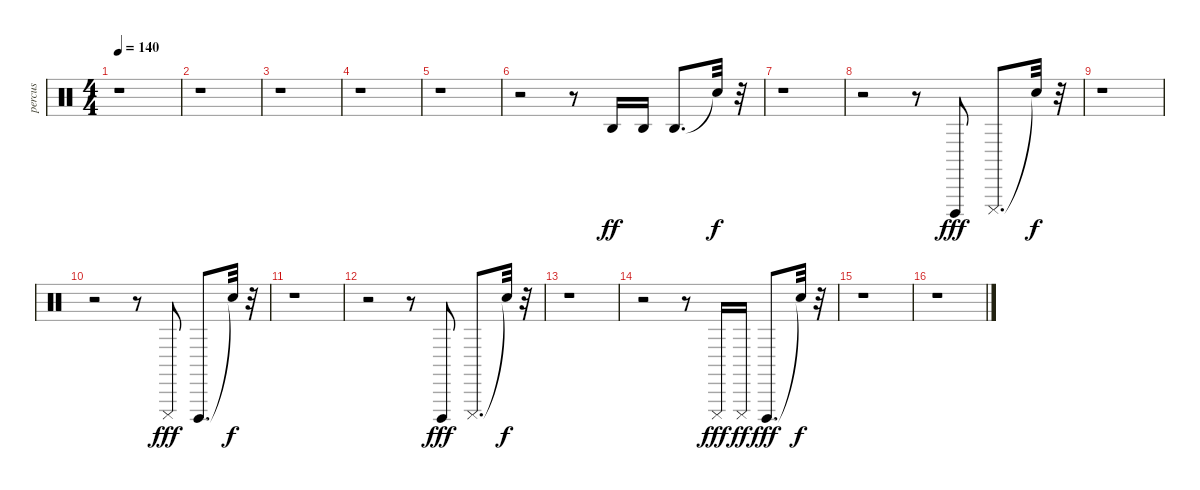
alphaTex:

\track ("percus" "percus") {instrument percussion}
\staff {score}
\articulation defaults
\ts (4 4)
\tempo 140
\clef neutral
\ks c
r.1{dy f} |
r.1 |
r.1 |
r.1 |
r.1 |
r.2 r.8 "Agogo high (hit)".16{dy ff} "Agogo high (hit)".16 "Agogo high (hit)".8{d} "Snare (hit)"{t}.32{dy f} r.32 |
r.1 |
r.2 r.8 "Cuica (open)".8{dy fff} "Cuica (mute)".8{d} "Snare (hit)"{t}.32{dy f} r.32 |
r.1 |
r.2 r.8 "Cuica (mute)".8{dy fff} "Cuica (open)".8{d} "Snare (hit)"{t}.32{dy f} r.32 |
r.1 |
r.2 r.8 "Cuica (open)".8{dy fff} "Cuica (mute)".8{d} "Snare (hit)"{t}.32{dy f} r.32 |
r.1 |
r.2 r.8 "Cuica (mute)".16{dy fff} "Cuica (mute)".16{dy ff} "Cuica (open)".8{d dy fff} "Snare (hit)"{t}.32{dy f} r.32 |
r.1 |
r.1
